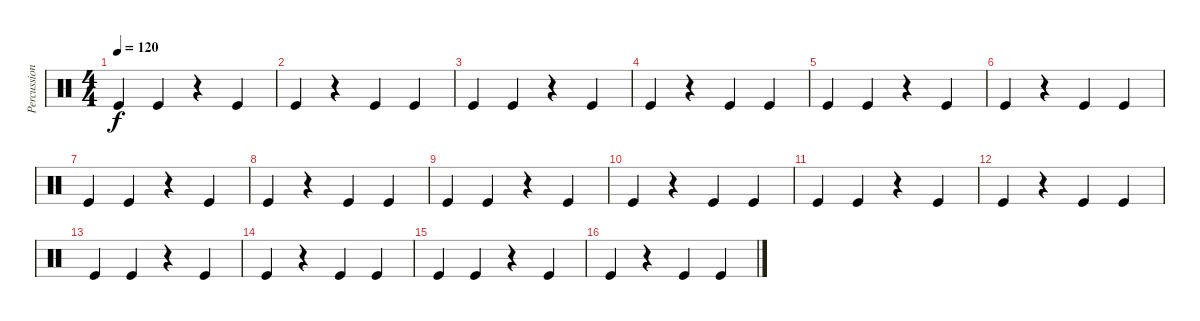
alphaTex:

\track ("Percussioni" "Percussion") {instrument percussion}
\staff {score}
\articulation defaults
\ts (4 4)
\tempo 120
\clef neutral
\ks c "Kick (hit)".4{dy f} "Kick (hit)".4
r.4 "Kick (hit)".4 |
"Kick (hit)".4 r.4 "Kick (hit)".4 "Kick (hit)".4 |
"Kick (hit)".4 "Kick (hit)".4 r.4 "Kick (hit)".4 |
"Kick (hit)".4 r.4 "Kick (hit)".4 "Kick (hit)".4 |
"Kick (hit)".4 "Kick (hit)".4 r.4 "Kick (hit)".4 |
"Kick (hit)".4 r.4 "Kick (hit)".4 "Kick (hit)".4 |
"Kick (hit)".4 "Kick (hit)".4 r.4 "Kick (hit)".4 |
"Kick (hit)".4 r.4 "Kick (hit)".4 "Kick (hit)".4 |
"Kick (hit)".4 "Kick (hit)".4 r.4 "Kick (hit)".4 |
"Kick (hit)".4 r.4 "Kick (hit)".4 "Kick (hit)".4 |
"Kick (hit)".4 "Kick (hit)".4 r.4 "Kick (hit)".4 |
"Kick (hit)".4 r.4 "Kick (hit)".4 "Kick (hit)".4 |
"Kick (hit)".4 "Kick (hit)".4 r.4 "Kick (hit)".4 |
"Kick (hit)".4 r.4 "Kick (hit)".4 "Kick (hit)".4 |
"Kick (hit)".4 "Kick (hit)".4 r.4 "Kick (hit)".4 |
"Kick (hit)".4 r.4 "Kick (hit)".4 "Kick (hit)".4
